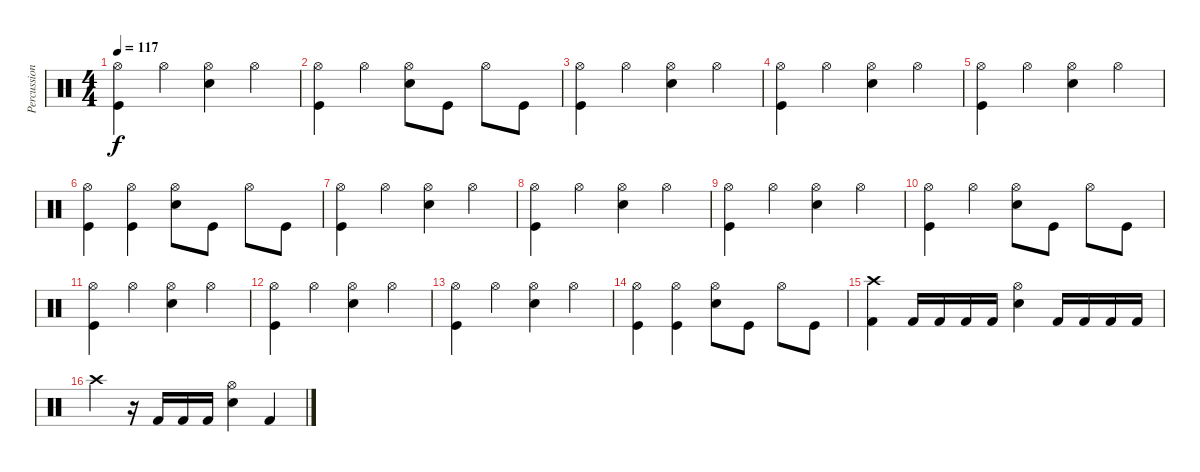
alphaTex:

\track ("Percussion" "Percussion") {instrument percussion}
\staff {score}
\articulation defaults
\ts (4 4)
\tempo 117
\clef neutral
\ks c
("Hi-Hat (open)" "Kick (hit)").4{dy f} "Hi-Hat (open)".4 ("Hi-Hat (open)" "Electric Snare (hit)").4 "Hi-Hat (open)".4 |
("Hi-Hat (open)" "Kick (hit)").4 "Hi-Hat (open)".4 ("Hi-Hat (open)" "Electric Snare (hit)").8 "Kick (hit)".8 "Hi-Hat (open)".8 "Kick (hit)".8 |
("Hi-Hat (open)" "Kick (hit)").4 "Hi-Hat (open)".4 ("Hi-Hat (open)" "Electric Snare (hit)").4 "Hi-Hat (open)".4 |
("Hi-Hat (open)" "Kick (hit)").4 "Hi-Hat (open)".4 ("Hi-Hat (open)" "Electric Snare (hit)").4 "Hi-Hat (open)".4 |
("Hi-Hat (open)" "Kick (hit)").4 "Hi-Hat (open)".4 ("Hi-Hat (open)" "Electric Snare (hit)").4 "Hi-Hat (open)".4 |
("Hi-Hat (open)" "Kick (hit)").4 ("Hi-Hat (open)" "Kick (hit)").4 ("Hi-Hat (open)" "Electric Snare (hit)").8 "Kick (hit)".8 "Hi-Hat (open)".8 "Kick (hit)".8 |
("Hi-Hat (open)" "Kick (hit)").4 "Hi-Hat (open)".4 ("Hi-Hat (open)" "Electric Snare (hit)").4 "Hi-Hat (open)".4 |
("Hi-Hat (open)" "Kick (hit)").4 "Hi-Hat (open)".4 ("Hi-Hat (open)" "Electric Snare (hit)").4 "Hi-Hat (open)".4 |
("Hi-Hat (open)" "Kick (hit)").4 "Hi-Hat (open)".4 ("Hi-Hat (open)" "Electric Snare (hit)").4 "Hi-Hat (open)".4 |
("Hi-Hat (open)" "Kick (hit)").4 "Hi-Hat (open)".4 ("Hi-Hat (open)" "Electric Snare (hit)").8 "Kick (hit)".8 "Hi-Hat (open)".8 "Kick (hit)".8 |
("Hi-Hat (open)" "Kick (hit)").4 "Hi-Hat (open)".4 ("Hi-Hat (open)" "Electric Snare (hit)").4 "Hi-Hat (open)".4 |
("Hi-Hat (open)" "Kick (hit)").4 "Hi-Hat (open)".4 ("Hi-Hat (open)" "Electric Snare (hit)").4 "Hi-Hat (open)".4 |
("Hi-Hat (open)" "Kick (hit)").4 "Hi-Hat (open)".4 ("Hi-Hat (open)" "Electric Snare (hit)").4 "Hi-Hat (open)".4 |
("Hi-Hat (open)" "Kick (hit)").4 ("Hi-Hat (open)" "Kick (hit)").4 ("Hi-Hat (open)" "Electric Snare (hit)").8 "Kick (hit)".8 "Hi-Hat (open)".8 "Kick (hit)".8 |
("Crash high (hit)" "Kick (hit) 2").4 "Kick (hit) 2".16 "Kick (hit) 2".16 "Kick (hit) 2".16 "Kick (hit) 2".16 ("Hi-Hat (open)" "Snare (hit) 2").4 "Kick (hit) 2".16 "Kick (hit) 2".16 "Kick (hit) 2".16 "Kick (hit) 2".16 |
"Crash high (hit)".4 r.16 "Kick (hit) 2".16 "Kick (hit) 2".16 "Kick (hit) 2".16 ("Hi-Hat (open)" "Snare (hit) 2").4 "Kick (hit) 2".4
